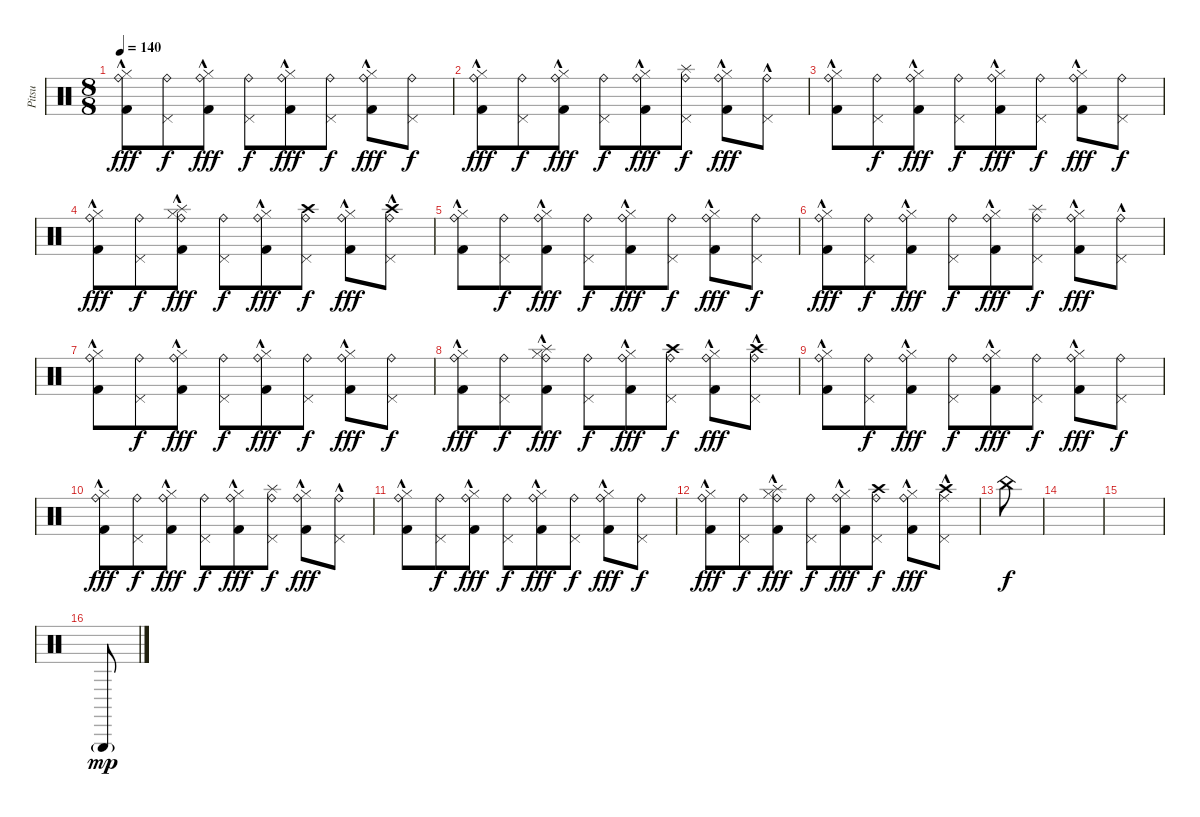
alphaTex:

\track ("Pitsu" "Pitsu") {instrument percussion}
\staff {score}
\articulation defaults
\ts (8 8)
\tempo 140
\clef neutral
\ks c
("Hi-Hat (closed)" "Ride (bell)" "Kick (hit) 2"{hac}).8{dy fff} ("Pedal Hi-Hat (hit)" "Ride (bell)").8{dy f} ("Hi-Hat (closed)" "Ride (bell)" "Kick (hit) 2"{hac}).8{dy fff} ("Pedal Hi-Hat (hit)" "Ride (bell)").8{dy f} ("Hi-Hat (closed)" "Ride (bell)" "Kick (hit) 2"{hac}).8{dy fff} ("Pedal Hi-Hat (hit)" "Ride (bell)").8{dy f} ("Hi-Hat (closed)" "Ride (bell)" "Kick (hit) 2"{hac}).8{dy fff} ("Pedal Hi-Hat (hit)" "Ride (bell)").8{dy f} |
("Hi-Hat (closed)" "Ride (bell)" "Kick (hit) 2"{hac}).8{dy fff} ("Pedal Hi-Hat (hit)" "Ride (bell)").8{dy f} ("Hi-Hat (closed)" "Ride (bell)" "Kick (hit) 2"{hac}).8{dy fff} ("Pedal Hi-Hat (hit)" "Ride (bell)").8{dy f} ("Hi-Hat (closed)" "Ride (bell)" "Kick (hit) 2"{hac}).8{dy fff} ("Pedal Hi-Hat (hit)" "Splash (hit)" "Ride (bell)").8{dy f} ("Hi-Hat (closed)" "Ride (bell)" "Kick (hit) 2"{hac}).8{dy fff} ("Pedal Hi-Hat (hit)" "Ride (bell)"{hac}).8 |
("Hi-Hat (closed)" "Ride (bell)" "Kick (hit) 2"{hac}).8 ("Pedal Hi-Hat (hit)" "Ride (bell)").8{dy f} ("Hi-Hat (closed)" "Ride (bell)" "Kick (hit) 2"{hac}).8{dy fff} ("Pedal Hi-Hat (hit)" "Ride (bell)").8{dy f} ("Hi-Hat (closed)" "Ride (bell)" "Kick (hit) 2"{hac}).8{dy fff} ("Pedal Hi-Hat (hit)" "Ride (bell)").8{dy f} ("Hi-Hat (closed)" "Ride (bell)" "Kick (hit) 2"{hac}).8{dy fff} ("Pedal Hi-Hat (hit)" "Ride (bell)").8{dy f} |
("Hi-Hat (closed)" "Ride (bell)" "Kick (hit) 2"{hac}).8{dy fff} ("Pedal Hi-Hat (hit)" "Ride (bell)").8{dy f} ("Hi-Hat (closed)" "Splash (hit)" "Ride (bell)" "Kick (hit) 2"{hac}).8{dy fff} ("Pedal Hi-Hat (hit)" "Ride (bell)").8{dy f} ("Hi-Hat (closed)" "Ride (bell)" "Kick (hit) 2"{hac}).8{dy fff} ("Pedal Hi-Hat (hit)" "Crash high (hit)" "Ride (bell)").8{dy f} ("Hi-Hat (closed)" "Ride (bell)" "Kick (hit) 2"{hac}).8{dy fff} ("Pedal Hi-Hat (hit)" "Crash high (hit)" "Ride (bell)"{hac}).8 |
("Hi-Hat (closed)" "Ride (bell)" "Kick (hit) 2"{hac}).8 ("Pedal Hi-Hat (hit)" "Ride (bell)").8{dy f} ("Hi-Hat (closed)" "Ride (bell)" "Kick (hit) 2"{hac}).8{dy fff} ("Pedal Hi-Hat (hit)" "Ride (bell)").8{dy f} ("Hi-Hat (closed)" "Ride (bell)" "Kick (hit) 2"{hac}).8{dy fff} ("Pedal Hi-Hat (hit)" "Ride (bell)").8{dy f} ("Hi-Hat (closed)" "Ride (bell)" "Kick (hit) 2"{hac}).8{dy fff} ("Pedal Hi-Hat (hit)" "Ride (bell)").8{dy f} |
("Hi-Hat (closed)" "Ride (bell)" "Kick (hit) 2"{hac}).8{dy fff} ("Pedal Hi-Hat (hit)" "Ride (bell)").8{dy f} ("Hi-Hat (closed)" "Ride (bell)" "Kick (hit) 2"{hac}).8{dy fff} ("Pedal Hi-Hat (hit)" "Ride (bell)").8{dy f} ("Hi-Hat (closed)" "Ride (bell)" "Kick (hit) 2"{hac}).8{dy fff} ("Pedal Hi-Hat (hit)" "Splash (hit)" "Ride (bell)").8{dy f} ("Hi-Hat (closed)" "Ride (bell)" "Kick (hit) 2"{hac}).8{dy fff} ("Pedal Hi-Hat (hit)" "Ride (bell)"{hac}).8 |
("Hi-Hat (closed)" "Ride (bell)" "Kick (hit) 2"{hac}).8 ("Pedal Hi-Hat (hit)" "Ride (bell)").8{dy f} ("Hi-Hat (closed)" "Ride (bell)" "Kick (hit) 2"{hac}).8{dy fff} ("Pedal Hi-Hat (hit)" "Ride (bell)").8{dy f} ("Hi-Hat (closed)" "Ride (bell)" "Kick (hit) 2"{hac}).8{dy fff} ("Pedal Hi-Hat (hit)" "Ride (bell)").8{dy f} ("Hi-Hat (closed)" "Ride (bell)" "Kick (hit) 2"{hac}).8{dy fff} ("Pedal Hi-Hat (hit)" "Ride (bell)").8{dy f} |
("Hi-Hat (closed)" "Ride (bell)" "Kick (hit) 2"{hac}).8{dy fff} ("Pedal Hi-Hat (hit)" "Ride (bell)").8{dy f} ("Hi-Hat (closed)" "Splash (hit)" "Ride (bell)" "Kick (hit) 2"{hac}).8{dy fff} ("Pedal Hi-Hat (hit)" "Ride (bell)").8{dy f} ("Hi-Hat (closed)" "Ride (bell)" "Kick (hit) 2"{hac}).8{dy fff} ("Pedal Hi-Hat (hit)" "Crash high (hit)" "Ride (bell)").8{dy f} ("Hi-Hat (closed)" "Ride (bell)" "Kick (hit) 2"{hac}).8{dy fff} ("Pedal Hi-Hat (hit)" "Crash high (hit)" "Ride (bell)"{hac}).8 |
("Hi-Hat (closed)" "Ride (bell)" "Kick (hit) 2"{hac}).8 ("Pedal Hi-Hat (hit)" "Ride (bell)").8{dy f} ("Hi-Hat (closed)" "Ride (bell)" "Kick (hit) 2"{hac}).8{dy fff} ("Pedal Hi-Hat (hit)" "Ride (bell)").8{dy f} ("Hi-Hat (closed)" "Ride (bell)" "Kick (hit) 2"{hac}).8{dy fff} ("Pedal Hi-Hat (hit)" "Ride (bell)").8{dy f} ("Hi-Hat (closed)" "Ride (bell)" "Kick (hit) 2"{hac}).8{dy fff} ("Pedal Hi-Hat (hit)" "Ride (bell)").8{dy f} |
("Hi-Hat (closed)" "Ride (bell)" "Kick (hit) 2"{hac}).8{dy fff} ("Pedal Hi-Hat (hit)" "Ride (bell)").8{dy f} ("Hi-Hat (closed)" "Ride (bell)" "Kick (hit) 2"{hac}).8{dy fff} ("Pedal Hi-Hat (hit)" "Ride (bell)").8{dy f} ("Hi-Hat (closed)" "Ride (bell)" "Kick (hit) 2"{hac}).8{dy fff} ("Pedal Hi-Hat (hit)" "Splash (hit)" "Ride (bell)").8{dy f} ("Hi-Hat (closed)" "Ride (bell)" "Kick (hit) 2"{hac}).8{dy fff} ("Pedal Hi-Hat (hit)" "Ride (bell)"{hac}).8 |
("Hi-Hat (closed)" "Ride (bell)" "Kick (hit) 2"{hac}).8 ("Pedal Hi-Hat (hit)" "Ride (bell)").8{dy f} ("Hi-Hat (closed)" "Ride (bell)" "Kick (hit) 2"{hac}).8{dy fff} ("Pedal Hi-Hat (hit)" "Ride (bell)").8{dy f} ("Hi-Hat (closed)" "Ride (bell)" "Kick (hit) 2"{hac}).8{dy fff} ("Pedal Hi-Hat (hit)" "Ride (bell)").8{dy f} ("Hi-Hat (closed)" "Ride (bell)" "Kick (hit) 2"{hac}).8{dy fff} ("Pedal Hi-Hat (hit)" "Ride (bell)").8{dy f} |
("Hi-Hat (closed)" "Ride (bell)" "Kick (hit) 2"{hac}).8{dy fff} ("Pedal Hi-Hat (hit)" "Ride (bell)").8{dy f} ("Hi-Hat (closed)" "Splash (hit)" "Ride (bell)" "Kick (hit) 2"{hac}).8{dy fff} ("Pedal Hi-Hat (hit)" "Ride (bell)").8{dy f} ("Hi-Hat (closed)" "Ride (bell)" "Kick (hit) 2"{hac}).8{dy fff} ("Pedal Hi-Hat (hit)" "Crash high (hit)" "Ride (bell)").8{dy f} ("Hi-Hat (closed)" "Ride (bell)" "Kick (hit) 2"{hac}).8{dy fff} ("Pedal Hi-Hat (hit)" "Crash high (hit)" "Ride (middle)"{hac}).8 |
"China (hit)".8{dy f} |
|
|
"Triangle (hit)"{g}.8{dy mp}
